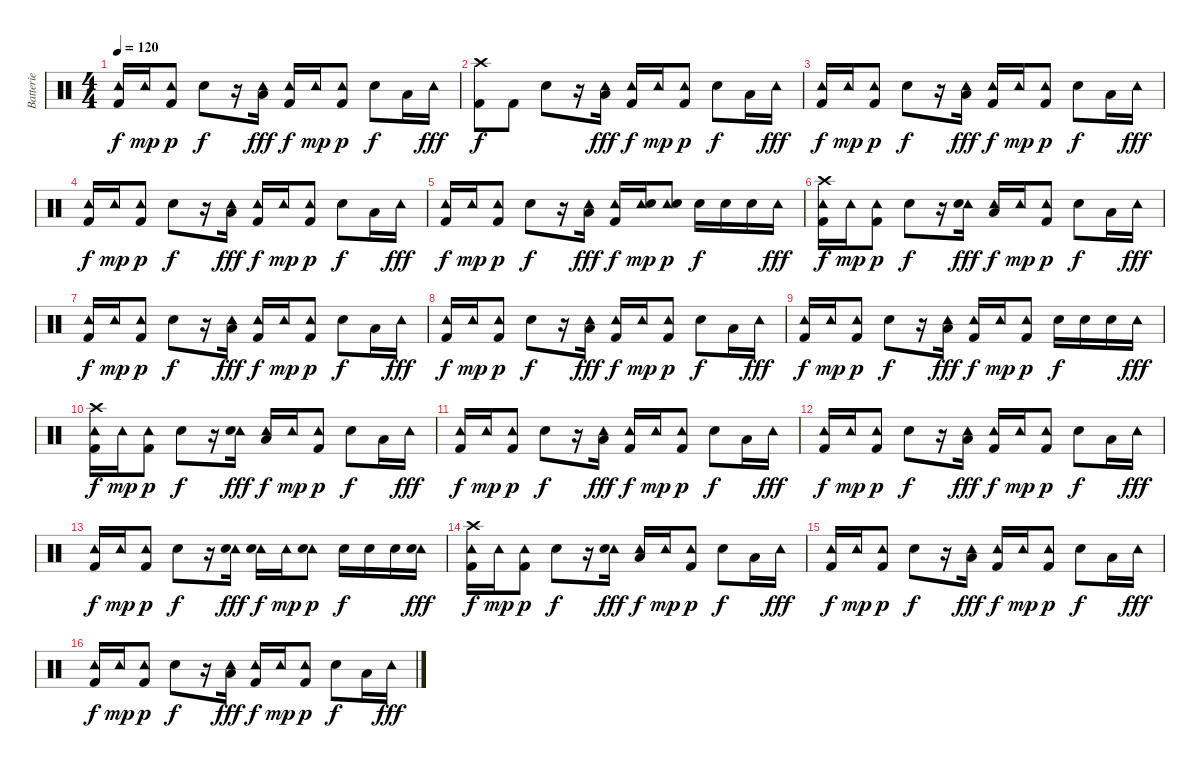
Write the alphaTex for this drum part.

\track ("Batterie" "Batterie") {instrument percussion}
\staff {score}
\articulation defaults
\ts (4 4)
\tempo 120
\clef neutral
\ks c
("Tambourine (hit)" "Kick (hit) 2").16{dy f} "Tambourine (hit)".16{dy mp} ("Tambourine (hit)" "Kick (hit) 2").8{dy p} "Electric Snare (hit)".8{dy f} r.16 ("Tambourine (hit)" "Low Tom (hit)").16{dy fff} ("Tambourine (hit)" "Kick (hit) 2").16{dy f} "Tambourine (hit)".16{dy mp} ("Tambourine (hit)" "Kick (hit) 2").8{dy p} "Electric Snare (hit)".8{dy f} "Low Tom (hit)".16 "Tambourine (hit)".16{dy fff} |
("Crash high (hit)" "Kick (hit) 2").8{dy f} "Kick (hit) 2".8 "Electric Snare (hit)".8 r.16 ("Tambourine (hit)" "Low Tom (hit)").16{dy fff} ("Tambourine (hit)" "Kick (hit) 2").16{dy f} "Tambourine (hit)".16{dy mp} ("Tambourine (hit)" "Kick (hit) 2").8{dy p} "Electric Snare (hit)".8{dy f} "Low Tom (hit)".16 "Tambourine (hit)".16{dy fff} |
("Tambourine (hit)" "Kick (hit) 2").16{dy f} "Tambourine (hit)".16{dy mp} ("Tambourine (hit)" "Kick (hit) 2").8{dy p} "Electric Snare (hit)".8{dy f} r.16 ("Tambourine (hit)" "Low Tom (hit)").16{dy fff} ("Tambourine (hit)" "Kick (hit) 2").16{dy f} "Tambourine (hit)".16{dy mp} ("Tambourine (hit)" "Kick (hit) 2").8{dy p} "Electric Snare (hit)".8{dy f} "Low Tom (hit)".16 "Tambourine (hit)".16{dy fff} |
("Tambourine (hit)" "Kick (hit) 2").16{dy f} "Tambourine (hit)".16{dy mp} ("Tambourine (hit)" "Kick (hit) 2").8{dy p} "Electric Snare (hit)".8{dy f} r.16 ("Tambourine (hit)" "Low Tom (hit)").16{dy fff} ("Tambourine (hit)" "Kick (hit) 2").16{dy f} "Tambourine (hit)".16{dy mp} ("Tambourine (hit)" "Kick (hit) 2").8{dy p} "Electric Snare (hit)".8{dy f} "Low Tom (hit)".16 "Tambourine (hit)".16{dy fff} |
("Tambourine (hit)" "Kick (hit) 2").16{dy f} "Tambourine (hit)".16{dy mp} ("Tambourine (hit)" "Kick (hit) 2").8{dy p} "Electric Snare (hit)".8{dy f} r.16 ("Tambourine (hit)" "Low Tom (hit)").16{dy fff} ("Tambourine (hit)" "Kick (hit) 2").16{dy f} ("Tambourine (hit)" "Electric Snare (hit)").16{dy mp} ("Tambourine (hit)" "Electric Snare (hit)").8{dy p} "Electric Snare (hit)".16{dy f} "Electric Snare (hit)".16 "Electric Snare (hit)".16 "Tambourine (hit)".16{dy fff} |
("Tambourine (hit)" "Kick (hit) 2" "Crash high (hit)").16{dy f} "Tambourine (hit)".16{dy mp} ("Tambourine (hit)" "Kick (hit) 2").8{dy p} "Electric Snare (hit)".8{dy f} r.16 ("Tambourine (hit)" "Electric Snare (hit)").16{dy fff} ("Tambourine (hit)" "Low Tom (hit)").16{dy f} "Tambourine (hit)".16{dy mp} ("Tambourine (hit)" "Kick (hit) 2").8{dy p} "Electric Snare (hit)".8{dy f} "Low Tom (hit)".16 "Tambourine (hit)".16{dy fff} |
("Tambourine (hit)" "Kick (hit) 2").16{dy f} "Tambourine (hit)".16{dy mp} ("Tambourine (hit)" "Kick (hit) 2").8{dy p} "Electric Snare (hit)".8{dy f} r.16 ("Tambourine (hit)" "Low Tom (hit)").16{dy fff} ("Tambourine (hit)" "Kick (hit) 2").16{dy f} "Tambourine (hit)".16{dy mp} ("Tambourine (hit)" "Kick (hit) 2").8{dy p} "Electric Snare (hit)".8{dy f} "Low Tom (hit)".16 "Tambourine (hit)".16{dy fff} |
("Tambourine (hit)" "Kick (hit) 2").16{dy f} "Tambourine (hit)".16{dy mp} ("Tambourine (hit)" "Kick (hit) 2").8{dy p} "Electric Snare (hit)".8{dy f} r.16 ("Tambourine (hit)" "Low Tom (hit)").16{dy fff} ("Tambourine (hit)" "Kick (hit) 2").16{dy f} "Tambourine (hit)".16{dy mp} ("Tambourine (hit)" "Kick (hit) 2").8{dy p} "Electric Snare (hit)".8{dy f} "Low Tom (hit)".16 "Tambourine (hit)".16{dy fff} |
("Tambourine (hit)" "Kick (hit) 2").16{dy f} "Tambourine (hit)".16{dy mp} ("Tambourine (hit)" "Kick (hit) 2").8{dy p} "Electric Snare (hit)".8{dy f} r.16 ("Tambourine (hit)" "Low Tom (hit)").16{dy fff} ("Tambourine (hit)" "Kick (hit) 2").16{dy f} "Tambourine (hit)".16{dy mp} ("Tambourine (hit)" "Kick (hit) 2").8{dy p} "Electric Snare (hit)".16{dy f} "Electric Snare (hit)".16 "Electric Snare (hit)".16 "Tambourine (hit)".16{dy fff} |
("Tambourine (hit)" "Kick (hit) 2" "Crash high (hit)").16{dy f} "Tambourine (hit)".16{dy mp} ("Tambourine (hit)" "Kick (hit) 2").8{dy p} "Electric Snare (hit)".8{dy f} r.16 ("Tambourine (hit)" "Electric Snare (hit)").16{dy fff} ("Tambourine (hit)" "Low Tom (hit)").16{dy f} "Tambourine (hit)".16{dy mp} ("Tambourine (hit)" "Kick (hit) 2").8{dy p} "Electric Snare (hit)".8{dy f} "Low Tom (hit)".16 "Tambourine (hit)".16{dy fff} |
("Tambourine (hit)" "Kick (hit) 2").16{dy f} "Tambourine (hit)".16{dy mp} ("Tambourine (hit)" "Kick (hit) 2").8{dy p} "Electric Snare (hit)".8{dy f} r.16 ("Tambourine (hit)" "Low Tom (hit)").16{dy fff} ("Tambourine (hit)" "Kick (hit) 2").16{dy f} "Tambourine (hit)".16{dy mp} ("Tambourine (hit)" "Kick (hit) 2").8{dy p} "Electric Snare (hit)".8{dy f} "Low Tom (hit)".16 "Tambourine (hit)".16{dy fff} |
("Tambourine (hit)" "Kick (hit) 2").16{dy f} "Tambourine (hit)".16{dy mp} ("Tambourine (hit)" "Kick (hit) 2").8{dy p} "Electric Snare (hit)".8{dy f} r.16 ("Tambourine (hit)" "Low Tom (hit)").16{dy fff} ("Tambourine (hit)" "Kick (hit) 2").16{dy f} "Tambourine (hit)".16{dy mp} ("Tambourine (hit)" "Kick (hit) 2").8{dy p} "Electric Snare (hit)".8{dy f} "Low Tom (hit)".16 "Tambourine (hit)".16{dy fff} |
("Tambourine (hit)" "Kick (hit) 2").16{dy f} "Tambourine (hit)".16{dy mp} ("Tambourine (hit)" "Kick (hit) 2").8{dy p} "Electric Snare (hit)".8{dy f} r.16 ("Tambourine (hit)" "Electric Snare (hit)").16{dy fff} ("Tambourine (hit)" "Electric Snare (hit)").16{dy f} "Tambourine (hit)".16{dy mp} ("Tambourine (hit)" "Electric Snare (hit)").8{dy p} "Electric Snare (hit)".16{dy f} "Electric Snare (hit)".16 "Electric Snare (hit)".16 ("Tambourine (hit)" "Electric Snare (hit)").16{dy fff} |
("Tambourine (hit)" "Kick (hit) 2" "Crash high (hit)").16{dy f} "Tambourine (hit)".16{dy mp} ("Tambourine (hit)" "Kick (hit) 2").8{dy p} "Electric Snare (hit)".8{dy f} r.16 ("Tambourine (hit)" "Electric Snare (hit)").16{dy fff} ("Tambourine (hit)" "Low Tom (hit)").16{dy f} "Tambourine (hit)".16{dy mp} ("Tambourine (hit)" "Kick (hit) 2").8{dy p} "Electric Snare (hit)".8{dy f} "Low Tom (hit)".16 "Tambourine (hit)".16{dy fff} |
("Tambourine (hit)" "Kick (hit) 2").16{dy f} "Tambourine (hit)".16{dy mp} ("Tambourine (hit)" "Kick (hit) 2").8{dy p} "Electric Snare (hit)".8{dy f} r.16 ("Tambourine (hit)" "Low Tom (hit)").16{dy fff} ("Tambourine (hit)" "Kick (hit) 2").16{dy f} "Tambourine (hit)".16{dy mp} ("Tambourine (hit)" "Kick (hit) 2").8{dy p} "Electric Snare (hit)".8{dy f} "Low Tom (hit)".16 "Tambourine (hit)".16{dy fff} |
("Tambourine (hit)" "Kick (hit) 2").16{dy f} "Tambourine (hit)".16{dy mp} ("Tambourine (hit)" "Kick (hit) 2").8{dy p} "Electric Snare (hit)".8{dy f} r.16 ("Tambourine (hit)" "Low Tom (hit)").16{dy fff} ("Tambourine (hit)" "Kick (hit) 2").16{dy f} "Tambourine (hit)".16{dy mp} ("Tambourine (hit)" "Kick (hit) 2").8{dy p} "Electric Snare (hit)".8{dy f} "Low Tom (hit)".16 "Tambourine (hit)".16{dy fff}
